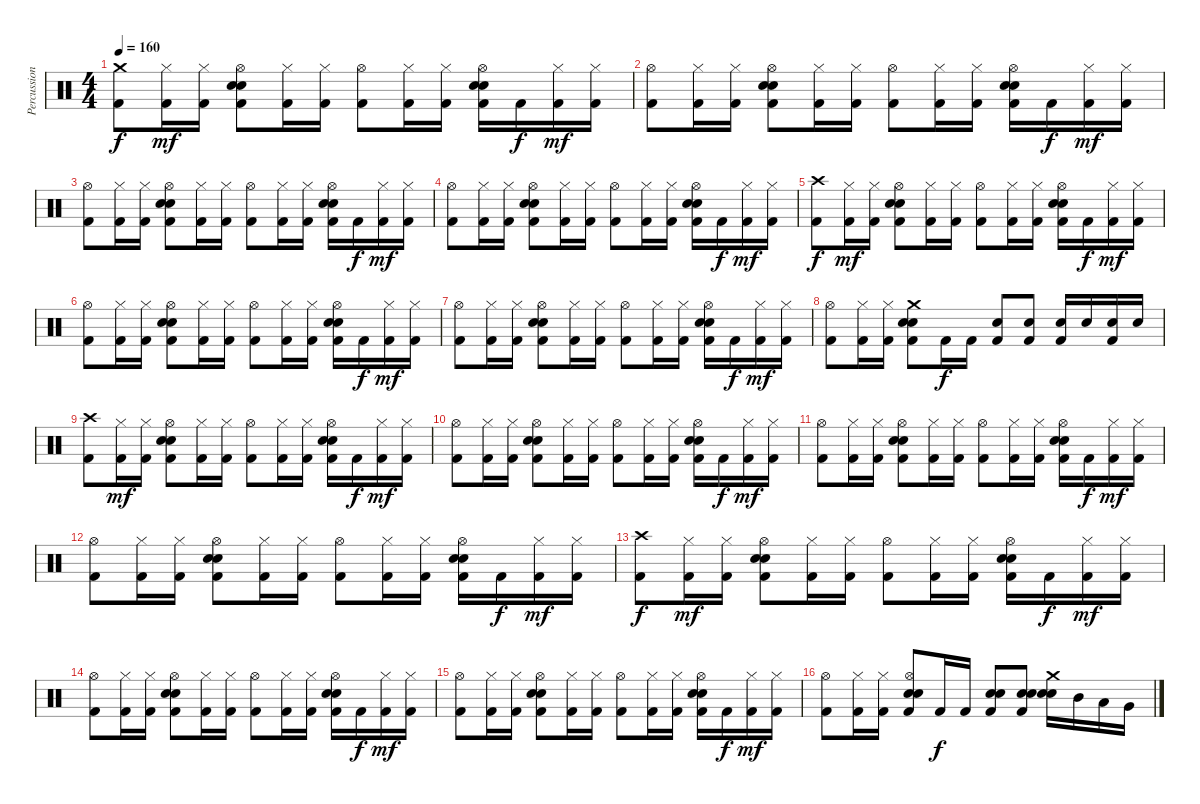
\track ("Percussion" "Percussion") {instrument percussion}
\staff {score}
\articulation defaults
\ts (4 4)
\section ("" "")
\tempo 160
\clef neutral
\ks c
("Crash medium (hit)" "Kick (hit) 2").8{dy f} ("Hi-Hat (closed)" "Kick (hit) 2").16{dy mf} ("Hi-Hat (closed)" "Kick (hit) 2").16 ("Hi-Hat (open)" "Electric Snare (hit)" "Snare (hit) 2" "Kick (hit) 2").8 ("Hi-Hat (closed)" "Kick (hit) 2").16 ("Hi-Hat (closed)" "Kick (hit) 2").16 ("Hi-Hat (open)" "Kick (hit) 2").8 ("Hi-Hat (closed)" "Kick (hit) 2").16 ("Hi-Hat (closed)" "Kick (hit) 2").16 ("Hi-Hat (open)" "Electric Snare (hit)" "Snare (hit) 2" "Kick (hit) 2").16 "Kick (hit) 2".16{dy f} ("Hi-Hat (closed)" "Kick (hit) 2").16{dy mf} ("Hi-Hat (closed)" "Kick (hit) 2").16 |
("Hi-Hat (open)" "Kick (hit) 2").8 ("Hi-Hat (closed)" "Kick (hit) 2").16 ("Hi-Hat (closed)" "Kick (hit) 2").16 ("Hi-Hat (open)" "Electric Snare (hit)" "Snare (hit) 2" "Kick (hit) 2").8 ("Hi-Hat (closed)" "Kick (hit) 2").16 ("Hi-Hat (closed)" "Kick (hit) 2").16 ("Hi-Hat (open)" "Kick (hit) 2").8 ("Hi-Hat (closed)" "Kick (hit) 2").16 ("Hi-Hat (closed)" "Kick (hit) 2").16 ("Hi-Hat (open)" "Electric Snare (hit)" "Snare (hit) 2" "Kick (hit) 2").16 "Kick (hit) 2".16{dy f} ("Hi-Hat (closed)" "Kick (hit) 2").16{dy mf} ("Hi-Hat (closed)" "Kick (hit) 2").16 |
("Hi-Hat (open)" "Kick (hit) 2").8 ("Hi-Hat (closed)" "Kick (hit) 2").16 ("Hi-Hat (closed)" "Kick (hit) 2").16 ("Hi-Hat (open)" "Electric Snare (hit)" "Snare (hit) 2" "Kick (hit) 2").8 ("Hi-Hat (closed)" "Kick (hit) 2").16 ("Hi-Hat (closed)" "Kick (hit) 2").16 ("Hi-Hat (open)" "Kick (hit) 2").8 ("Hi-Hat (closed)" "Kick (hit) 2").16 ("Hi-Hat (closed)" "Kick (hit) 2").16 ("Hi-Hat (open)" "Electric Snare (hit)" "Snare (hit) 2" "Kick (hit) 2").16 "Kick (hit) 2".16{dy f} ("Hi-Hat (closed)" "Kick (hit) 2").16{dy mf} ("Hi-Hat (closed)" "Kick (hit) 2").16 |
("Hi-Hat (open)" "Kick (hit) 2").8 ("Hi-Hat (closed)" "Kick (hit) 2").16 ("Hi-Hat (closed)" "Kick (hit) 2").16 ("Hi-Hat (open)" "Electric Snare (hit)" "Snare (hit) 2" "Kick (hit) 2").8 ("Hi-Hat (closed)" "Kick (hit) 2").16 ("Hi-Hat (closed)" "Kick (hit) 2").16 ("Hi-Hat (open)" "Kick (hit) 2").8 ("Hi-Hat (closed)" "Kick (hit) 2").16 ("Hi-Hat (closed)" "Kick (hit) 2").16 ("Hi-Hat (open)" "Electric Snare (hit)" "Snare (hit) 2" "Kick (hit) 2").16 "Kick (hit) 2".16{dy f} ("Hi-Hat (closed)" "Kick (hit) 2").16{dy mf} ("Hi-Hat (closed)" "Kick (hit) 2").16 |
("Crash high (hit)" "Kick (hit) 2").8{dy f} ("Hi-Hat (closed)" "Kick (hit) 2").16{dy mf} ("Hi-Hat (closed)" "Kick (hit) 2").16 ("Hi-Hat (open)" "Electric Snare (hit)" "Snare (hit) 2" "Kick (hit) 2").8 ("Hi-Hat (closed)" "Kick (hit) 2").16 ("Hi-Hat (closed)" "Kick (hit) 2").16 ("Hi-Hat (open)" "Kick (hit) 2").8 ("Hi-Hat (closed)" "Kick (hit) 2").16 ("Hi-Hat (closed)" "Kick (hit) 2").16 ("Hi-Hat (open)" "Electric Snare (hit)" "Snare (hit) 2" "Kick (hit) 2").16 "Kick (hit) 2".16{dy f} ("Hi-Hat (closed)" "Kick (hit) 2").16{dy mf} ("Hi-Hat (closed)" "Kick (hit) 2").16 |
("Hi-Hat (open)" "Kick (hit) 2").8 ("Hi-Hat (closed)" "Kick (hit) 2").16 ("Hi-Hat (closed)" "Kick (hit) 2").16 ("Hi-Hat (open)" "Electric Snare (hit)" "Snare (hit) 2" "Kick (hit) 2").8 ("Hi-Hat (closed)" "Kick (hit) 2").16 ("Hi-Hat (closed)" "Kick (hit) 2").16 ("Hi-Hat (open)" "Kick (hit) 2").8 ("Hi-Hat (closed)" "Kick (hit) 2").16 ("Hi-Hat (closed)" "Kick (hit) 2").16 ("Hi-Hat (open)" "Electric Snare (hit)" "Snare (hit) 2" "Kick (hit) 2").16 "Kick (hit) 2".16{dy f} ("Hi-Hat (closed)" "Kick (hit) 2").16{dy mf} ("Hi-Hat (closed)" "Kick (hit) 2").16 |
("Hi-Hat (open)" "Kick (hit) 2").8 ("Hi-Hat (closed)" "Kick (hit) 2").16 ("Hi-Hat (closed)" "Kick (hit) 2").16 ("Hi-Hat (open)" "Electric Snare (hit)" "Snare (hit) 2" "Kick (hit) 2").8 ("Hi-Hat (closed)" "Kick (hit) 2").16 ("Hi-Hat (closed)" "Kick (hit) 2").16 ("Hi-Hat (open)" "Kick (hit) 2").8 ("Hi-Hat (closed)" "Kick (hit) 2").16 ("Hi-Hat (closed)" "Kick (hit) 2").16 ("Hi-Hat (open)" "Electric Snare (hit)" "Snare (hit) 2" "Kick (hit) 2").16 "Kick (hit) 2".16{dy f} ("Hi-Hat (closed)" "Kick (hit) 2").16{dy mf} ("Hi-Hat (closed)" "Kick (hit) 2").16 |
("Hi-Hat (open)" "Kick (hit) 2").8 ("Hi-Hat (closed)" "Kick (hit) 2").16 ("Hi-Hat (closed)" "Kick (hit) 2").16 ("Crash medium (hit)" "Electric Snare (hit)" "Snare (hit) 2" "Kick (hit) 2").8 "Kick (hit) 2".16{dy f} "Kick (hit) 2".16 ("Snare (hit) 2" "Kick (hit) 2").8 ("Snare (hit) 2" "Kick (hit) 2").8 ("Snare (hit) 2" "Kick (hit) 2").16 "Snare (hit) 2".16 ("Snare (hit) 2" "Kick (hit) 2").16 "Snare (hit) 2".16 |
("Crash high (hit)" "Kick (hit) 2").8 ("Hi-Hat (closed)" "Kick (hit) 2").16{dy mf} ("Hi-Hat (closed)" "Kick (hit) 2").16 ("Hi-Hat (open)" "Electric Snare (hit)" "Snare (hit) 2" "Kick (hit) 2").8 ("Hi-Hat (closed)" "Kick (hit) 2").16 ("Hi-Hat (closed)" "Kick (hit) 2").16 ("Hi-Hat (open)" "Kick (hit) 2").8 ("Hi-Hat (closed)" "Kick (hit) 2").16 ("Hi-Hat (closed)" "Kick (hit) 2").16 ("Hi-Hat (open)" "Electric Snare (hit)" "Snare (hit) 2" "Kick (hit) 2").16 "Kick (hit) 2".16{dy f} ("Hi-Hat (closed)" "Kick (hit) 2").16{dy mf} ("Hi-Hat (closed)" "Kick (hit) 2").16 |
("Hi-Hat (open)" "Kick (hit) 2").8 ("Hi-Hat (closed)" "Kick (hit) 2").16 ("Hi-Hat (closed)" "Kick (hit) 2").16 ("Hi-Hat (open)" "Electric Snare (hit)" "Snare (hit) 2" "Kick (hit) 2").8 ("Hi-Hat (closed)" "Kick (hit) 2").16 ("Hi-Hat (closed)" "Kick (hit) 2").16 ("Hi-Hat (open)" "Kick (hit) 2").8 ("Hi-Hat (closed)" "Kick (hit) 2").16 ("Hi-Hat (closed)" "Kick (hit) 2").16 ("Hi-Hat (open)" "Electric Snare (hit)" "Snare (hit) 2" "Kick (hit) 2").16 "Kick (hit) 2".16{dy f} ("Hi-Hat (closed)" "Kick (hit) 2").16{dy mf} ("Hi-Hat (closed)" "Kick (hit) 2").16 |
("Hi-Hat (open)" "Kick (hit) 2").8 ("Hi-Hat (closed)" "Kick (hit) 2").16 ("Hi-Hat (closed)" "Kick (hit) 2").16 ("Hi-Hat (open)" "Electric Snare (hit)" "Snare (hit) 2" "Kick (hit) 2").8 ("Hi-Hat (closed)" "Kick (hit) 2").16 ("Hi-Hat (closed)" "Kick (hit) 2").16 ("Hi-Hat (open)" "Kick (hit) 2").8 ("Hi-Hat (closed)" "Kick (hit) 2").16 ("Hi-Hat (closed)" "Kick (hit) 2").16 ("Hi-Hat (open)" "Electric Snare (hit)" "Snare (hit) 2" "Kick (hit) 2").16 "Kick (hit) 2".16{dy f} ("Hi-Hat (closed)" "Kick (hit) 2").16{dy mf} ("Hi-Hat (closed)" "Kick (hit) 2").16 |
("Hi-Hat (open)" "Kick (hit) 2").8 ("Hi-Hat (closed)" "Kick (hit) 2").16 ("Hi-Hat (closed)" "Kick (hit) 2").16 ("Hi-Hat (open)" "Electric Snare (hit)" "Snare (hit) 2" "Kick (hit) 2").8 ("Hi-Hat (closed)" "Kick (hit) 2").16 ("Hi-Hat (closed)" "Kick (hit) 2").16 ("Hi-Hat (open)" "Kick (hit) 2").8 ("Hi-Hat (closed)" "Kick (hit) 2").16 ("Hi-Hat (closed)" "Kick (hit) 2").16 ("Hi-Hat (open)" "Electric Snare (hit)" "Snare (hit) 2" "Kick (hit) 2").16 "Kick (hit) 2".16{dy f} ("Hi-Hat (closed)" "Kick (hit) 2").16{dy mf} ("Hi-Hat (closed)" "Kick (hit) 2").16 |
("Crash high (hit)" "Kick (hit) 2").8{dy f} ("Hi-Hat (closed)" "Kick (hit) 2").16{dy mf} ("Hi-Hat (closed)" "Kick (hit) 2").16 ("Hi-Hat (open)" "Electric Snare (hit)" "Snare (hit) 2" "Kick (hit) 2").8 ("Hi-Hat (closed)" "Kick (hit) 2").16 ("Hi-Hat (closed)" "Kick (hit) 2").16 ("Hi-Hat (open)" "Kick (hit) 2").8 ("Hi-Hat (closed)" "Kick (hit) 2").16 ("Hi-Hat (closed)" "Kick (hit) 2").16 ("Hi-Hat (open)" "Electric Snare (hit)" "Snare (hit) 2" "Kick (hit) 2").16 "Kick (hit) 2".16{dy f} ("Hi-Hat (closed)" "Kick (hit) 2").16{dy mf} ("Hi-Hat (closed)" "Kick (hit) 2").16 |
("Hi-Hat (open)" "Kick (hit) 2").8 ("Hi-Hat (closed)" "Kick (hit) 2").16 ("Hi-Hat (closed)" "Kick (hit) 2").16 ("Hi-Hat (open)" "Electric Snare (hit)" "Snare (hit) 2" "Kick (hit) 2").8 ("Hi-Hat (closed)" "Kick (hit) 2").16 ("Hi-Hat (closed)" "Kick (hit) 2").16 ("Hi-Hat (open)" "Kick (hit) 2").8 ("Hi-Hat (closed)" "Kick (hit) 2").16 ("Hi-Hat (closed)" "Kick (hit) 2").16 ("Hi-Hat (open)" "Electric Snare (hit)" "Snare (hit) 2" "Kick (hit) 2").16 "Kick (hit) 2".16{dy f} ("Hi-Hat (closed)" "Kick (hit) 2").16{dy mf} ("Hi-Hat (closed)" "Kick (hit) 2").16 |
("Hi-Hat (open)" "Kick (hit) 2").8 ("Hi-Hat (closed)" "Kick (hit) 2").16 ("Hi-Hat (closed)" "Kick (hit) 2").16 ("Hi-Hat (open)" "Electric Snare (hit)" "Snare (hit) 2" "Kick (hit) 2").8 ("Hi-Hat (closed)" "Kick (hit) 2").16 ("Hi-Hat (closed)" "Kick (hit) 2").16 ("Hi-Hat (open)" "Kick (hit) 2").8 ("Hi-Hat (closed)" "Kick (hit) 2").16 ("Hi-Hat (closed)" "Kick (hit) 2").16 ("Hi-Hat (open)" "Electric Snare (hit)" "Snare (hit) 2" "Kick (hit) 2").16 "Kick (hit) 2".16{dy f} ("Hi-Hat (closed)" "Kick (hit) 2").16{dy mf} ("Hi-Hat (closed)" "Kick (hit) 2").16 |
("Hi-Hat (open)" "Kick (hit) 2").8 ("Hi-Hat (closed)" "Kick (hit) 2").16 ("Hi-Hat (closed)" "Kick (hit) 2").16 ("Hi-Hat (open)" "Electric Snare (hit)" "Snare (hit) 2" "Kick (hit) 2").8 "Kick (hit) 2".16{dy f} "Kick (hit) 2".16 ("Electric Snare (hit)" "Snare (hit) 2" "Kick (hit) 2").8 ("Electric Snare (hit)" "Snare (hit) 2" "Kick (hit) 2").8 ("Crash medium (hit)" "Electric Snare (hit)" "Snare (hit) 2").16 "Mid Tom (hit)".16 "Low Tom (hit)".16 "Very Low Tom (hit)".16
